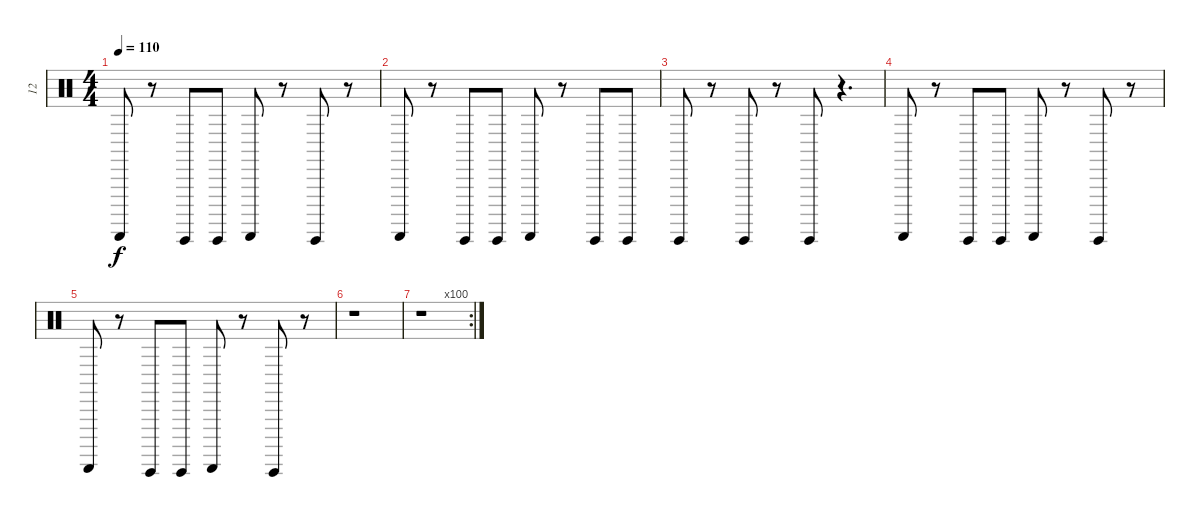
\track ("12" "12") {instrument percussion}
\staff {score}
\articulation defaults
\ts (4 4)
\tempo 110
\clef neutral
\ks c "Guiro (scrap-return)".8{dy f}
r.8 "Guiro (hit)".8 "Guiro (hit)".8 "Guiro (scrap-return)".8 r.8 "Guiro (hit)".8 r.8 |
"Guiro (scrap-return)".8 r.8 "Guiro (hit)".8 "Guiro (hit)".8 "Guiro (scrap-return)".8 r.8 "Guiro (hit)".8 "Guiro (hit)".8 |
"Guiro (hit)".8 r.8 "Guiro (hit)".8 r.8 "Guiro (hit)".8 r.4{d} |
"Guiro (scrap-return)".8 r.8 "Guiro (hit)".8 "Guiro (hit)".8 "Guiro (scrap-return)".8 r.8 "Guiro (hit)".8 r.8 |
"Guiro (scrap-return)".8 r.8 "Guiro (hit)".8 "Guiro (hit)".8 "Guiro (scrap-return)".8 r.8 "Guiro (hit)".8 r.8 |
r.1 |
\rc 100
r.1
